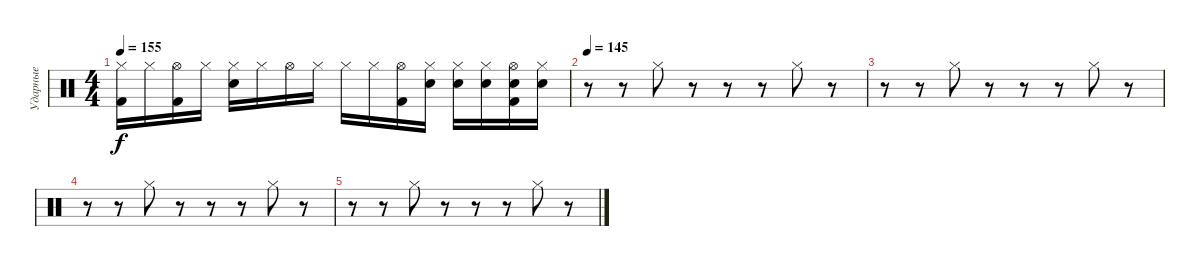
\track ("Ударные" "Ударные") {instrument percussion}
\staff {score}
\articulation defaults
\ts (4 4)
\tempo 155
\clef neutral
\ks c
("Hi-Hat (closed)" "Kick (hit) 2").16{dy f} "Hi-Hat (closed)".16 ("Hi-Hat (open)" "Kick (hit) 2").16 "Hi-Hat (closed)".16 ("Hi-Hat (closed)" "Electric Snare (hit)").16 "Hi-Hat (closed)".16 "Hi-Hat (open)".16 "Hi-Hat (closed)".16 "Hi-Hat (closed)".16 "Hi-Hat (closed)".16 ("Hi-Hat (open)" "Kick (hit) 2").16 ("Hi-Hat (closed)" "Electric Snare (hit)").16 ("Hi-Hat (closed)" "Electric Snare (hit)").16 ("Hi-Hat (closed)" "Electric Snare (hit)").16 ("Hi-Hat (open)" "Kick (hit) 2" "Electric Snare (hit)").16 ("Hi-Hat (closed)" "Electric Snare (hit)").16 |
\tempo 145
r.8 r.8 "Hi-Hat (closed)".8 r.8 r.8 r.8 "Hi-Hat (closed)".8 r.8 |
r.8 r.8 "Hi-Hat (closed)".8 r.8 r.8 r.8 "Hi-Hat (closed)".8 r.8 |
r.8 r.8 "Hi-Hat (closed)".8 r.8 r.8 r.8 "Hi-Hat (closed)".8 r.8 |
r.8 r.8 "Hi-Hat (closed)".8 r.8 r.8 r.8 "Hi-Hat (closed)".8 r.8
